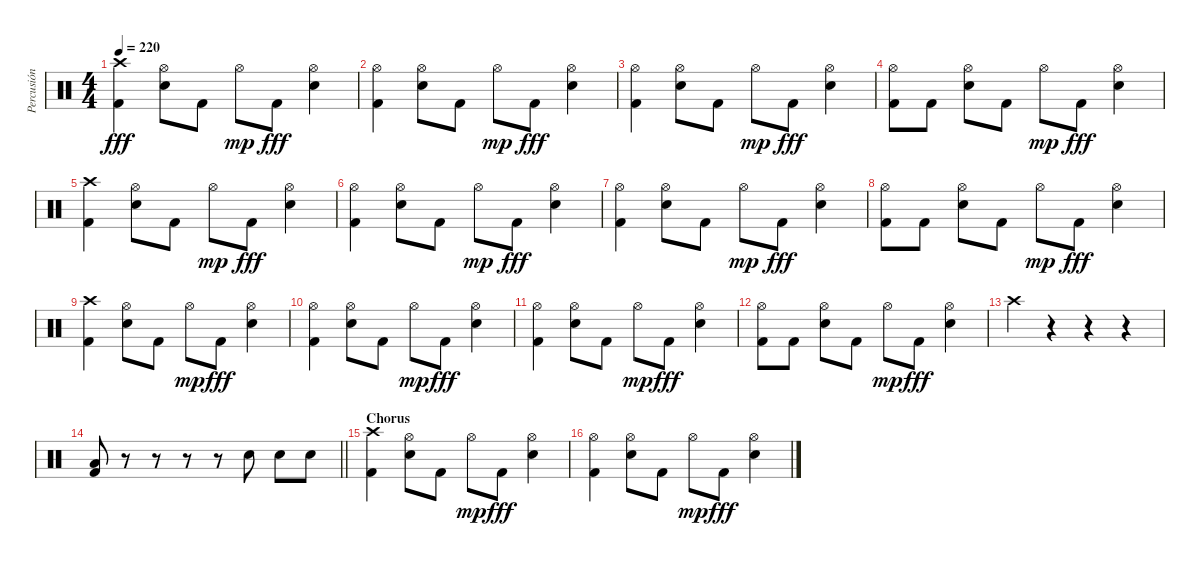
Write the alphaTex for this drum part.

\track ("Percusión" "Percusión") {instrument percussion}
\staff {score}
\articulation defaults
\ts (4 4)
\tempo 220
\clef neutral
\ks c
("Crash high (hit)" "Kick (hit) 2").4{dy fff} ("Hi-Hat (open)" "Snare (hit) 2").8 "Kick (hit) 2".8 "Hi-Hat (open)".8{dy mp} "Kick (hit) 2".8{dy fff} ("Hi-Hat (open)" "Snare (hit) 2").4 |
("Hi-Hat (open)" "Kick (hit) 2").4 ("Hi-Hat (open)" "Snare (hit) 2").8 "Kick (hit) 2".8 "Hi-Hat (open)".8{dy mp} "Kick (hit) 2".8{dy fff} ("Hi-Hat (open)" "Snare (hit) 2").4 |
("Hi-Hat (open)" "Kick (hit) 2").4 ("Hi-Hat (open)" "Snare (hit) 2").8 "Kick (hit) 2".8 "Hi-Hat (open)".8{dy mp} "Kick (hit) 2".8{dy fff} ("Hi-Hat (open)" "Snare (hit) 2").4 |
("Hi-Hat (open)" "Kick (hit) 2").8 "Kick (hit) 2".8 ("Hi-Hat (open)" "Snare (hit) 2").8 "Kick (hit) 2".8 "Hi-Hat (open)".8{dy mp} "Kick (hit) 2".8{dy fff} ("Hi-Hat (open)" "Snare (hit) 2").4 |
("Crash high (hit)" "Kick (hit) 2").4 ("Hi-Hat (open)" "Snare (hit) 2").8 "Kick (hit) 2".8 "Hi-Hat (open)".8{dy mp} "Kick (hit) 2".8{dy fff} ("Hi-Hat (open)" "Snare (hit) 2").4 |
("Hi-Hat (open)" "Kick (hit) 2").4 ("Hi-Hat (open)" "Snare (hit) 2").8 "Kick (hit) 2".8 "Hi-Hat (open)".8{dy mp} "Kick (hit) 2".8{dy fff} ("Hi-Hat (open)" "Snare (hit) 2").4 |
("Hi-Hat (open)" "Kick (hit) 2").4 ("Hi-Hat (open)" "Snare (hit) 2").8 "Kick (hit) 2".8 "Hi-Hat (open)".8{dy mp} "Kick (hit) 2".8{dy fff} ("Hi-Hat (open)" "Snare (hit) 2").4 |
("Hi-Hat (open)" "Kick (hit) 2").8 "Kick (hit) 2".8 ("Hi-Hat (open)" "Snare (hit) 2").8 "Kick (hit) 2".8 "Hi-Hat (open)".8{dy mp} "Kick (hit) 2".8{dy fff} ("Hi-Hat (open)" "Snare (hit) 2").4 |
("Crash high (hit)" "Kick (hit) 2").4 ("Hi-Hat (open)" "Snare (hit) 2").8 "Kick (hit) 2".8 "Hi-Hat (open)".8{dy mp} "Kick (hit) 2".8{dy fff} ("Hi-Hat (open)" "Snare (hit) 2").4 |
("Hi-Hat (open)" "Kick (hit) 2").4 ("Hi-Hat (open)" "Snare (hit) 2").8 "Kick (hit) 2".8 "Hi-Hat (open)".8{dy mp} "Kick (hit) 2".8{dy fff} ("Hi-Hat (open)" "Snare (hit) 2").4 |
("Hi-Hat (open)" "Kick (hit) 2").4 ("Hi-Hat (open)" "Snare (hit) 2").8 "Kick (hit) 2".8 "Hi-Hat (open)".8{dy mp} "Kick (hit) 2".8{dy fff} ("Hi-Hat (open)" "Snare (hit) 2").4 |
("Hi-Hat (open)" "Kick (hit) 2").8 "Kick (hit) 2".8 ("Hi-Hat (open)" "Snare (hit) 2").8 "Kick (hit) 2".8 "Hi-Hat (open)".8{dy mp} "Kick (hit) 2".8{dy fff} ("Hi-Hat (open)" "Snare (hit) 2").4 |
"Crash high (hit)".4 r.4 r.4 r.4 |
\barLineRight lightlight
("Low Floor Tom (hit)" "Kick (hit) 2").8 r.8 r.8 r.8 r.8 "Snare (hit) 2".8 "Snare (hit) 2".8 "Snare (hit) 2".8 |
\section ("" "Chorus")
("Crash high (hit)" "Kick (hit) 2").4 ("Hi-Hat (open)" "Snare (hit) 2").8 "Kick (hit) 2".8 "Hi-Hat (open)".8{dy mp} "Kick (hit) 2".8{dy fff} ("Hi-Hat (open)" "Snare (hit) 2").4 |
("Hi-Hat (open)" "Kick (hit) 2").4 ("Hi-Hat (open)" "Snare (hit) 2").8 "Kick (hit) 2".8 "Hi-Hat (open)".8{dy mp} "Kick (hit) 2".8{dy fff} ("Hi-Hat (open)" "Snare (hit) 2").4
